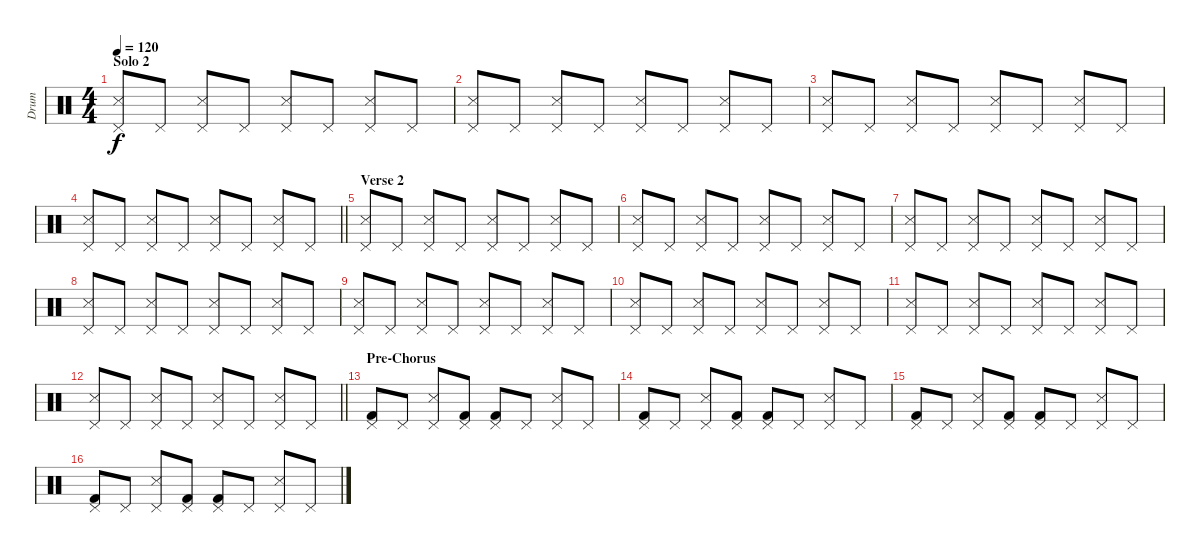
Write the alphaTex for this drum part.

\track ("Drum" "Drum") {instrument percussion}
\staff {score}
\articulation defaults
\ts (4 4)
\section ("" "Solo 2")
\tempo 120
\clef neutral
\ks c
("Pedal Hi-Hat (hit)" "Metronome (hit)").8{dy f} "Pedal Hi-Hat (hit)".8 ("Pedal Hi-Hat (hit)" "Metronome (hit)").8 "Pedal Hi-Hat (hit)".8 ("Pedal Hi-Hat (hit)" "Metronome (hit)").8 "Pedal Hi-Hat (hit)".8 ("Pedal Hi-Hat (hit)" "Metronome (hit)").8 "Pedal Hi-Hat (hit)".8 |
("Pedal Hi-Hat (hit)" "Metronome (hit)").8 "Pedal Hi-Hat (hit)".8 ("Pedal Hi-Hat (hit)" "Metronome (hit)").8 "Pedal Hi-Hat (hit)".8 ("Pedal Hi-Hat (hit)" "Metronome (hit)").8 "Pedal Hi-Hat (hit)".8 ("Pedal Hi-Hat (hit)" "Metronome (hit)").8 "Pedal Hi-Hat (hit)".8 |
("Pedal Hi-Hat (hit)" "Metronome (hit)").8 "Pedal Hi-Hat (hit)".8 ("Pedal Hi-Hat (hit)" "Metronome (hit)").8 "Pedal Hi-Hat (hit)".8 ("Pedal Hi-Hat (hit)" "Metronome (hit)").8 "Pedal Hi-Hat (hit)".8 ("Pedal Hi-Hat (hit)" "Metronome (hit)").8 "Pedal Hi-Hat (hit)".8 |
\barLineRight lightlight
("Pedal Hi-Hat (hit)" "Metronome (hit)").8 "Pedal Hi-Hat (hit)".8 ("Pedal Hi-Hat (hit)" "Metronome (hit)").8 "Pedal Hi-Hat (hit)".8 ("Pedal Hi-Hat (hit)" "Metronome (hit)").8 "Pedal Hi-Hat (hit)".8 ("Pedal Hi-Hat (hit)" "Metronome (hit)").8 "Pedal Hi-Hat (hit)".8 |
\section ("" "Verse 2")
("Pedal Hi-Hat (hit)" "Metronome (hit)").8 "Pedal Hi-Hat (hit)".8 ("Pedal Hi-Hat (hit)" "Metronome (hit)").8 "Pedal Hi-Hat (hit)".8 ("Pedal Hi-Hat (hit)" "Metronome (hit)").8 "Pedal Hi-Hat (hit)".8 ("Pedal Hi-Hat (hit)" "Metronome (hit)").8 "Pedal Hi-Hat (hit)".8 |
("Pedal Hi-Hat (hit)" "Metronome (hit)").8 "Pedal Hi-Hat (hit)".8 ("Pedal Hi-Hat (hit)" "Metronome (hit)").8 "Pedal Hi-Hat (hit)".8 ("Pedal Hi-Hat (hit)" "Metronome (hit)").8 "Pedal Hi-Hat (hit)".8 ("Pedal Hi-Hat (hit)" "Metronome (hit)").8 "Pedal Hi-Hat (hit)".8 |
("Pedal Hi-Hat (hit)" "Metronome (hit)").8 "Pedal Hi-Hat (hit)".8 ("Pedal Hi-Hat (hit)" "Metronome (hit)").8 "Pedal Hi-Hat (hit)".8 ("Pedal Hi-Hat (hit)" "Metronome (hit)").8 "Pedal Hi-Hat (hit)".8 ("Pedal Hi-Hat (hit)" "Metronome (hit)").8 "Pedal Hi-Hat (hit)".8 |
("Pedal Hi-Hat (hit)" "Metronome (hit)").8 "Pedal Hi-Hat (hit)".8 ("Pedal Hi-Hat (hit)" "Metronome (hit)").8 "Pedal Hi-Hat (hit)".8 ("Pedal Hi-Hat (hit)" "Metronome (hit)").8 "Pedal Hi-Hat (hit)".8 ("Pedal Hi-Hat (hit)" "Metronome (hit)").8 "Pedal Hi-Hat (hit)".8 |
("Pedal Hi-Hat (hit)" "Metronome (hit)").8 "Pedal Hi-Hat (hit)".8 ("Pedal Hi-Hat (hit)" "Metronome (hit)").8 "Pedal Hi-Hat (hit)".8 ("Pedal Hi-Hat (hit)" "Metronome (hit)").8 "Pedal Hi-Hat (hit)".8 ("Pedal Hi-Hat (hit)" "Metronome (hit)").8 "Pedal Hi-Hat (hit)".8 |
("Pedal Hi-Hat (hit)" "Metronome (hit)").8 "Pedal Hi-Hat (hit)".8 ("Pedal Hi-Hat (hit)" "Metronome (hit)").8 "Pedal Hi-Hat (hit)".8 ("Pedal Hi-Hat (hit)" "Metronome (hit)").8 "Pedal Hi-Hat (hit)".8 ("Pedal Hi-Hat (hit)" "Metronome (hit)").8 "Pedal Hi-Hat (hit)".8 |
("Pedal Hi-Hat (hit)" "Metronome (hit)").8 "Pedal Hi-Hat (hit)".8 ("Pedal Hi-Hat (hit)" "Metronome (hit)").8 "Pedal Hi-Hat (hit)".8 ("Pedal Hi-Hat (hit)" "Metronome (hit)").8 "Pedal Hi-Hat (hit)".8 ("Pedal Hi-Hat (hit)" "Metronome (hit)").8 "Pedal Hi-Hat (hit)".8 |
\barLineRight lightlight
("Pedal Hi-Hat (hit)" "Metronome (hit)").8 "Pedal Hi-Hat (hit)".8 ("Pedal Hi-Hat (hit)" "Metronome (hit)").8 "Pedal Hi-Hat (hit)".8 ("Pedal Hi-Hat (hit)" "Metronome (hit)").8 "Pedal Hi-Hat (hit)".8 ("Pedal Hi-Hat (hit)" "Metronome (hit)").8 "Pedal Hi-Hat (hit)".8 |
\section ("" "Pre-Chorus")
("Pedal Hi-Hat (hit)" "Kick (hit) 2").8 "Pedal Hi-Hat (hit)".8 ("Pedal Hi-Hat (hit)" "Metronome (hit)").8 ("Pedal Hi-Hat (hit)" "Kick (hit) 2").8 ("Pedal Hi-Hat (hit)" "Kick (hit) 2").8 "Pedal Hi-Hat (hit)".8 ("Pedal Hi-Hat (hit)" "Metronome (hit)").8 "Pedal Hi-Hat (hit)".8 |
("Pedal Hi-Hat (hit)" "Kick (hit) 2").8 "Pedal Hi-Hat (hit)".8 ("Pedal Hi-Hat (hit)" "Metronome (hit)").8 ("Pedal Hi-Hat (hit)" "Kick (hit) 2").8 ("Pedal Hi-Hat (hit)" "Kick (hit) 2").8 "Pedal Hi-Hat (hit)".8 ("Pedal Hi-Hat (hit)" "Metronome (hit)").8 "Pedal Hi-Hat (hit)".8 |
("Pedal Hi-Hat (hit)" "Kick (hit) 2").8 "Pedal Hi-Hat (hit)".8 ("Pedal Hi-Hat (hit)" "Metronome (hit)").8 ("Pedal Hi-Hat (hit)" "Kick (hit) 2").8 ("Pedal Hi-Hat (hit)" "Kick (hit) 2").8 "Pedal Hi-Hat (hit)".8 ("Pedal Hi-Hat (hit)" "Metronome (hit)").8 "Pedal Hi-Hat (hit)".8 |
("Pedal Hi-Hat (hit)" "Kick (hit) 2").8 "Pedal Hi-Hat (hit)".8 ("Pedal Hi-Hat (hit)" "Metronome (hit)").8 ("Pedal Hi-Hat (hit)" "Kick (hit) 2").8 ("Pedal Hi-Hat (hit)" "Kick (hit) 2").8 "Pedal Hi-Hat (hit)".8 ("Pedal Hi-Hat (hit)" "Metronome (hit)").8 "Pedal Hi-Hat (hit)".8
